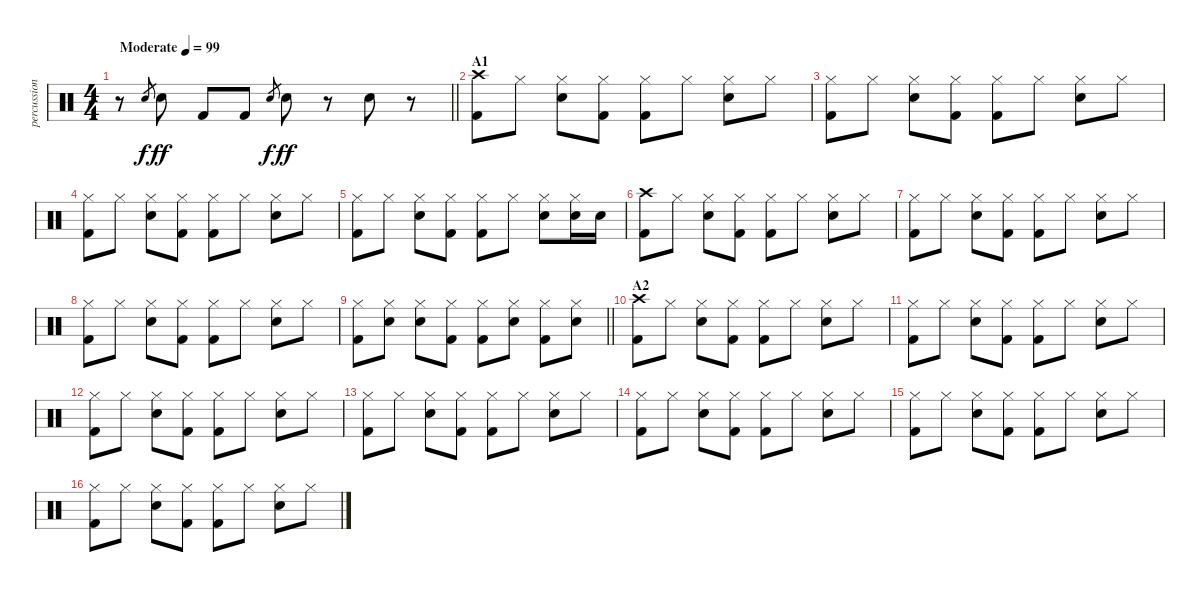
\track ("percussion" "percussion") {instrument percussion}
\staff {score}
\articulation defaults
\ts (4 4)
\tempo (99 "Moderate")
\clef neutral
\barLineRight lightlight
\ks c
r.8{dy f} "Snare (hit) 2".8{gr} "Snare (hit) 2".8{dy ff} "Kick (hit) 2".8 "Kick (hit) 2".8 "Snare (hit) 2".8{gr dy f} "Snare (hit) 2".8{dy ff} r.8 "Snare (hit) 2".8 r.8 |
\section ("" "A1")
("Crash high (hit)" "Kick (hit) 2").8 "Hi-Hat (closed)".8 ("Snare (hit) 2" "Hi-Hat (closed)").8 ("Hi-Hat (closed)" "Kick (hit) 2").8 ("Hi-Hat (closed)" "Kick (hit) 2").8 "Hi-Hat (closed)".8 ("Snare (hit) 2" "Hi-Hat (closed)").8 "Hi-Hat (closed)".8 |
("Hi-Hat (closed)" "Kick (hit) 2").8 "Hi-Hat (closed)".8 ("Snare (hit) 2" "Hi-Hat (closed)").8 ("Hi-Hat (closed)" "Kick (hit) 2").8 ("Hi-Hat (closed)" "Kick (hit) 2").8 "Hi-Hat (closed)".8 ("Snare (hit) 2" "Hi-Hat (closed)").8 "Hi-Hat (closed)".8 |
("Hi-Hat (closed)" "Kick (hit) 2").8 "Hi-Hat (closed)".8 ("Snare (hit) 2" "Hi-Hat (closed)").8 ("Hi-Hat (closed)" "Kick (hit) 2").8 ("Hi-Hat (closed)" "Kick (hit) 2").8 "Hi-Hat (closed)".8 ("Snare (hit) 2" "Hi-Hat (closed)").8 "Hi-Hat (closed)".8 |
("Hi-Hat (closed)" "Kick (hit) 2").8 "Hi-Hat (closed)".8 ("Snare (hit) 2" "Hi-Hat (closed)").8 ("Hi-Hat (closed)" "Kick (hit) 2").8 ("Hi-Hat (closed)" "Kick (hit) 2").8 "Hi-Hat (closed)".8 ("Snare (hit) 2" "Hi-Hat (closed)").8 ("Snare (hit) 2" "Hi-Hat (closed)").16 "Snare (hit) 2".16 |
("Crash high (hit)" "Kick (hit) 2").8 "Hi-Hat (closed)".8 ("Snare (hit) 2" "Hi-Hat (closed)").8 ("Hi-Hat (closed)" "Kick (hit) 2").8 ("Hi-Hat (closed)" "Kick (hit) 2").8 "Hi-Hat (closed)".8 ("Snare (hit) 2" "Hi-Hat (closed)").8 "Hi-Hat (closed)".8 |
("Hi-Hat (closed)" "Kick (hit) 2").8 "Hi-Hat (closed)".8 ("Snare (hit) 2" "Hi-Hat (closed)").8 ("Hi-Hat (closed)" "Kick (hit) 2").8 ("Hi-Hat (closed)" "Kick (hit) 2").8 "Hi-Hat (closed)".8 ("Snare (hit) 2" "Hi-Hat (closed)").8 "Hi-Hat (closed)".8 |
("Hi-Hat (closed)" "Kick (hit) 2").8 "Hi-Hat (closed)".8 ("Snare (hit) 2" "Hi-Hat (closed)").8 ("Hi-Hat (closed)" "Kick (hit) 2").8 ("Hi-Hat (closed)" "Kick (hit) 2").8 "Hi-Hat (closed)".8 ("Snare (hit) 2" "Hi-Hat (closed)").8 "Hi-Hat (closed)".8 |
\barLineRight lightlight
("Hi-Hat (closed)" "Kick (hit) 2").8 ("Snare (hit) 2" "Hi-Hat (closed)").8 ("Snare (hit) 2" "Hi-Hat (closed)").8 ("Hi-Hat (closed)" "Kick (hit) 2").8 ("Hi-Hat (closed)" "Kick (hit) 2").8 ("Snare (hit) 2" "Hi-Hat (closed)").8 ("Hi-Hat (closed)" "Kick (hit) 2").8 ("Snare (hit) 2" "Hi-Hat (closed)").8 |
\section ("" "A2")
("Crash high (hit)" "Kick (hit) 2").8 "Hi-Hat (closed)".8 ("Snare (hit) 2" "Hi-Hat (closed)").8 ("Hi-Hat (closed)" "Kick (hit) 2").8 ("Hi-Hat (closed)" "Kick (hit) 2").8 "Hi-Hat (closed)".8 ("Snare (hit) 2" "Hi-Hat (closed)").8 "Hi-Hat (closed)".8 |
("Hi-Hat (closed)" "Kick (hit) 2").8 "Hi-Hat (closed)".8 ("Snare (hit) 2" "Hi-Hat (closed)").8 ("Hi-Hat (closed)" "Kick (hit) 2").8 ("Hi-Hat (closed)" "Kick (hit) 2").8 "Hi-Hat (closed)".8 ("Snare (hit) 2" "Hi-Hat (closed)").8 "Hi-Hat (closed)".8 |
("Hi-Hat (closed)" "Kick (hit) 2").8 "Hi-Hat (closed)".8 ("Snare (hit) 2" "Hi-Hat (closed)").8 ("Hi-Hat (closed)" "Kick (hit) 2").8 ("Hi-Hat (closed)" "Kick (hit) 2").8 "Hi-Hat (closed)".8 ("Snare (hit) 2" "Hi-Hat (closed)").8 "Hi-Hat (closed)".8 |
("Hi-Hat (closed)" "Kick (hit) 2").8 "Hi-Hat (closed)".8 ("Snare (hit) 2" "Hi-Hat (closed)").8 ("Hi-Hat (closed)" "Kick (hit) 2").8 ("Hi-Hat (closed)" "Kick (hit) 2").8 "Hi-Hat (closed)".8 ("Snare (hit) 2" "Hi-Hat (closed)").8 "Hi-Hat (closed)".8 |
("Hi-Hat (closed)" "Kick (hit) 2").8 "Hi-Hat (closed)".8 ("Snare (hit) 2" "Hi-Hat (closed)").8 ("Hi-Hat (closed)" "Kick (hit) 2").8 ("Hi-Hat (closed)" "Kick (hit) 2").8 "Hi-Hat (closed)".8 ("Snare (hit) 2" "Hi-Hat (closed)").8 "Hi-Hat (closed)".8 |
("Hi-Hat (closed)" "Kick (hit) 2").8 "Hi-Hat (closed)".8 ("Snare (hit) 2" "Hi-Hat (closed)").8 ("Hi-Hat (closed)" "Kick (hit) 2").8 ("Hi-Hat (closed)" "Kick (hit) 2").8 "Hi-Hat (closed)".8 ("Snare (hit) 2" "Hi-Hat (closed)").8 "Hi-Hat (closed)".8 |
("Hi-Hat (closed)" "Kick (hit) 2").8 "Hi-Hat (closed)".8 ("Snare (hit) 2" "Hi-Hat (closed)").8 ("Hi-Hat (closed)" "Kick (hit) 2").8 ("Hi-Hat (closed)" "Kick (hit) 2").8 "Hi-Hat (closed)".8 ("Snare (hit) 2" "Hi-Hat (closed)").8 "Hi-Hat (closed)".8
